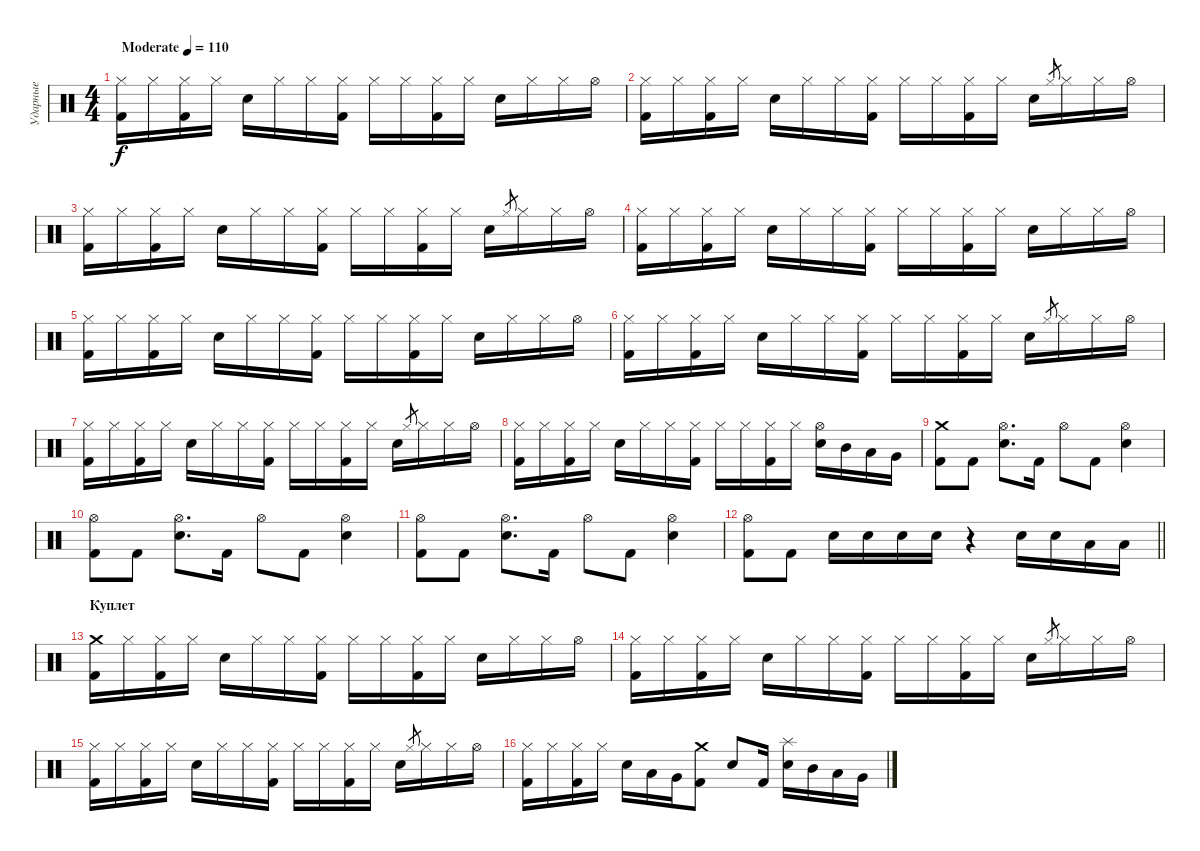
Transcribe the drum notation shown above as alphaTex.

\track ("Ударные" "Ударные") {instrument percussion}
\staff {score}
\articulation defaults
\ts (4 4)
\tempo (110 "Moderate")
\clef neutral
\ks c
("Hi-Hat (closed)" "Kick (hit) 2").16{dy f} "Hi-Hat (closed)".16 ("Hi-Hat (closed)" "Kick (hit) 2").16 "Hi-Hat (closed)".16 "Snare (hit) 2".16 "Hi-Hat (closed)".16 "Hi-Hat (closed)".16 ("Hi-Hat (closed)" "Kick (hit) 2").16 "Hi-Hat (closed)".16 "Hi-Hat (closed)".16 ("Hi-Hat (closed)" "Kick (hit) 2").16 "Hi-Hat (closed)".16 "Snare (hit) 2".16 "Hi-Hat (closed)".16 "Hi-Hat (closed)".16 "Hi-Hat (open)".16 |
("Hi-Hat (closed)" "Kick (hit) 2").16 "Hi-Hat (closed)".16 ("Hi-Hat (closed)" "Kick (hit) 2").16 "Hi-Hat (closed)".16 "Snare (hit) 2".16 "Hi-Hat (closed)".16 "Hi-Hat (closed)".16 ("Hi-Hat (closed)" "Kick (hit) 2").16 "Hi-Hat (closed)".16 "Hi-Hat (closed)".16 ("Hi-Hat (closed)" "Kick (hit) 2").16 "Hi-Hat (closed)".16 "Snare (hit) 2".16 "Hi-Hat (closed)".8{gr} "Hi-Hat (closed)".16 "Hi-Hat (closed)".16 "Hi-Hat (open)".16 |
("Hi-Hat (closed)" "Kick (hit) 2").16 "Hi-Hat (closed)".16 ("Hi-Hat (closed)" "Kick (hit) 2").16 "Hi-Hat (closed)".16 "Snare (hit) 2".16 "Hi-Hat (closed)".16 "Hi-Hat (closed)".16 ("Hi-Hat (closed)" "Kick (hit) 2").16 "Hi-Hat (closed)".16 "Hi-Hat (closed)".16 ("Hi-Hat (closed)" "Kick (hit) 2").16 "Hi-Hat (closed)".16 "Snare (hit) 2".16 "Hi-Hat (closed)".8{gr} "Hi-Hat (closed)".16 "Hi-Hat (closed)".16 "Hi-Hat (open)".16 |
("Hi-Hat (closed)" "Kick (hit) 2").16 "Hi-Hat (closed)".16 ("Hi-Hat (closed)" "Kick (hit) 2").16 "Hi-Hat (closed)".16 "Snare (hit) 2".16 "Hi-Hat (closed)".16 "Hi-Hat (closed)".16 ("Hi-Hat (closed)" "Kick (hit) 2").16 "Hi-Hat (closed)".16 "Hi-Hat (closed)".16 ("Hi-Hat (closed)" "Kick (hit) 2").16 "Hi-Hat (closed)".16 "Snare (hit) 2".16 "Hi-Hat (closed)".16 "Hi-Hat (closed)".16 "Hi-Hat (open)".16 |
("Hi-Hat (closed)" "Kick (hit) 2").16 "Hi-Hat (closed)".16 ("Hi-Hat (closed)" "Kick (hit) 2").16 "Hi-Hat (closed)".16 "Snare (hit) 2".16 "Hi-Hat (closed)".16 "Hi-Hat (closed)".16 ("Hi-Hat (closed)" "Kick (hit) 2").16 "Hi-Hat (closed)".16 "Hi-Hat (closed)".16 ("Hi-Hat (closed)" "Kick (hit) 2").16 "Hi-Hat (closed)".16 "Snare (hit) 2".16 "Hi-Hat (closed)".16 "Hi-Hat (closed)".16 "Hi-Hat (open)".16 |
("Hi-Hat (closed)" "Kick (hit) 2").16 "Hi-Hat (closed)".16 ("Hi-Hat (closed)" "Kick (hit) 2").16 "Hi-Hat (closed)".16 "Snare (hit) 2".16 "Hi-Hat (closed)".16 "Hi-Hat (closed)".16 ("Hi-Hat (closed)" "Kick (hit) 2").16 "Hi-Hat (closed)".16 "Hi-Hat (closed)".16 ("Hi-Hat (closed)" "Kick (hit) 2").16 "Hi-Hat (closed)".16 "Snare (hit) 2".16 "Hi-Hat (closed)".8{gr} "Hi-Hat (closed)".16 "Hi-Hat (closed)".16 "Hi-Hat (open)".16 |
("Hi-Hat (closed)" "Kick (hit) 2").16 "Hi-Hat (closed)".16 ("Hi-Hat (closed)" "Kick (hit) 2").16 "Hi-Hat (closed)".16 "Snare (hit) 2".16 "Hi-Hat (closed)".16 "Hi-Hat (closed)".16 ("Hi-Hat (closed)" "Kick (hit) 2").16 "Hi-Hat (closed)".16 "Hi-Hat (closed)".16 ("Hi-Hat (closed)" "Kick (hit) 2").16 "Hi-Hat (closed)".16 "Snare (hit) 2".16 "Hi-Hat (closed)".8{gr} "Hi-Hat (closed)".16 "Hi-Hat (closed)".16 "Hi-Hat (open)".16 |
("Hi-Hat (closed)" "Kick (hit) 2").16 "Hi-Hat (closed)".16 ("Hi-Hat (closed)" "Kick (hit) 2").16 "Hi-Hat (closed)".16 "Snare (hit) 2".16 "Hi-Hat (closed)".16 "Hi-Hat (closed)".16 ("Hi-Hat (closed)" "Kick (hit) 2").16 "Hi-Hat (closed)".16 "Hi-Hat (closed)".16 ("Hi-Hat (closed)" "Kick (hit) 2").16 "Hi-Hat (closed)".16 ("Hi-Hat (open)" "Snare (hit) 2").16 "Mid Tom (hit)".16 "Low Tom (hit)".16 "Very Low Tom (hit)".16 |
("Crash medium (hit)" "Kick (hit) 2").8 "Kick (hit) 2".8 ("Hi-Hat (open)" "Snare (hit) 2").8{d} "Kick (hit) 2".16 "Hi-Hat (open)".8 "Kick (hit) 2".8 ("Hi-Hat (open)" "Snare (hit) 2").4 |
("Hi-Hat (open)" "Kick (hit) 2").8 "Kick (hit) 2".8 ("Hi-Hat (open)" "Snare (hit) 2").8{d} "Kick (hit) 2".16 "Hi-Hat (open)".8 "Kick (hit) 2".8 ("Hi-Hat (open)" "Snare (hit) 2").4 |
("Hi-Hat (open)" "Kick (hit) 2").8 "Kick (hit) 2".8 ("Hi-Hat (open)" "Snare (hit) 2").8{d} "Kick (hit) 2".16 "Hi-Hat (open)".8 "Kick (hit) 2".8 ("Hi-Hat (open)" "Snare (hit) 2").4 |
\barLineRight lightlight
("Hi-Hat (open)" "Kick (hit) 2").8 "Kick (hit) 2".8 "Snare (hit) 2".16 "Snare (hit) 2".16 "Snare (hit) 2".16 "Snare (hit) 2".16 r.4 "Snare (hit) 2".16 "Snare (hit) 2".16 "Low Tom (hit)".16 "Low Floor Tom (hit)".16 |
\section ("" "Куплет")
("Crash medium (hit)" "Kick (hit) 2").16 "Hi-Hat (closed)".16 ("Hi-Hat (closed)" "Kick (hit) 2").16 "Hi-Hat (closed)".16 "Snare (hit) 2".16 "Hi-Hat (closed)".16 "Hi-Hat (closed)".16 ("Hi-Hat (closed)" "Kick (hit) 2").16 "Hi-Hat (closed)".16 "Hi-Hat (closed)".16 ("Hi-Hat (closed)" "Kick (hit) 2").16 "Hi-Hat (closed)".16 "Snare (hit) 2".16 "Hi-Hat (closed)".16 "Hi-Hat (closed)".16 "Hi-Hat (open)".16 |
("Hi-Hat (closed)" "Kick (hit) 2").16 "Hi-Hat (closed)".16 ("Hi-Hat (closed)" "Kick (hit) 2").16 "Hi-Hat (closed)".16 "Snare (hit) 2".16 "Hi-Hat (closed)".16 "Hi-Hat (closed)".16 ("Hi-Hat (closed)" "Kick (hit) 2").16 "Hi-Hat (closed)".16 "Hi-Hat (closed)".16 ("Hi-Hat (closed)" "Kick (hit) 2").16 "Hi-Hat (closed)".16 "Snare (hit) 2".16 "Hi-Hat (closed)".8{gr} "Hi-Hat (closed)".16 "Hi-Hat (closed)".16 "Hi-Hat (open)".16 |
("Hi-Hat (closed)" "Kick (hit) 2").16 "Hi-Hat (closed)".16 ("Hi-Hat (closed)" "Kick (hit) 2").16 "Hi-Hat (closed)".16 "Snare (hit) 2".16 "Hi-Hat (closed)".16 "Hi-Hat (closed)".16 ("Hi-Hat (closed)" "Kick (hit) 2").16 "Hi-Hat (closed)".16 "Hi-Hat (closed)".16 ("Hi-Hat (closed)" "Kick (hit) 2").16 "Hi-Hat (closed)".16 "Snare (hit) 2".16 "Hi-Hat (closed)".8{gr} "Hi-Hat (closed)".16 "Hi-Hat (closed)".16 "Hi-Hat (open)".16 |
("Hi-Hat (closed)" "Kick (hit) 2").16 "Hi-Hat (closed)".16 ("Hi-Hat (closed)" "Kick (hit) 2").16 "Hi-Hat (closed)".16 "Snare (hit) 2".16 "Low Tom (hit)".16 "Very Low Tom (hit)".16 ("Crash medium (hit)" "Kick (hit) 2").8 "Snare (hit) 2".8 "Kick (hit) 2".16 ("Splash (hit)" "Snare (hit) 2").16 "Mid Tom (hit)".16 "Low Tom (hit)".16 "Very Low Tom (hit)".16
